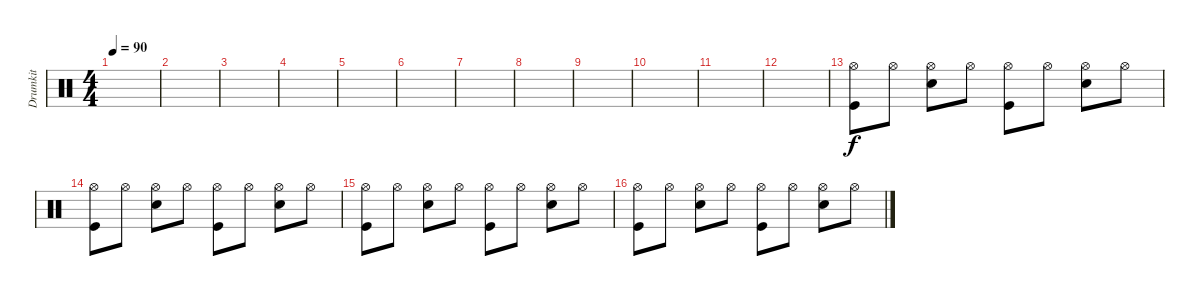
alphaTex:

\track ("Drumkit" "Drumkit") {instrument percussion}
\staff {score}
\articulation defaults
\ts (4 4)
\tempo 90
\clef neutral
\ks c
|
|
|
|
|
|
|
|
|
|
|
|
("Hi-Hat (open)" "Kick (hit)").8{dy f} "Hi-Hat (open)".8 ("Hi-Hat (open)" "Snare (hit) 2").8 "Hi-Hat (open)".8 ("Hi-Hat (open)" "Kick (hit)").8 "Hi-Hat (open)".8 ("Hi-Hat (open)" "Snare (hit) 2").8 "Hi-Hat (open)".8 |
("Hi-Hat (open)" "Kick (hit)").8 "Hi-Hat (open)".8 ("Hi-Hat (open)" "Snare (hit) 2").8 "Hi-Hat (open)".8 ("Hi-Hat (open)" "Kick (hit)").8 "Hi-Hat (open)".8 ("Hi-Hat (open)" "Snare (hit) 2").8 "Hi-Hat (open)".8 |
("Hi-Hat (open)" "Kick (hit)").8 "Hi-Hat (open)".8 ("Hi-Hat (open)" "Snare (hit) 2").8 "Hi-Hat (open)".8 ("Hi-Hat (open)" "Kick (hit)").8 "Hi-Hat (open)".8 ("Hi-Hat (open)" "Snare (hit) 2").8 "Hi-Hat (open)".8 |
("Hi-Hat (open)" "Kick (hit)").8 "Hi-Hat (open)".8 ("Hi-Hat (open)" "Snare (hit) 2").8 "Hi-Hat (open)".8 ("Hi-Hat (open)" "Kick (hit)").8 "Hi-Hat (open)".8 ("Hi-Hat (open)" "Snare (hit) 2").8 "Hi-Hat (open)".8
